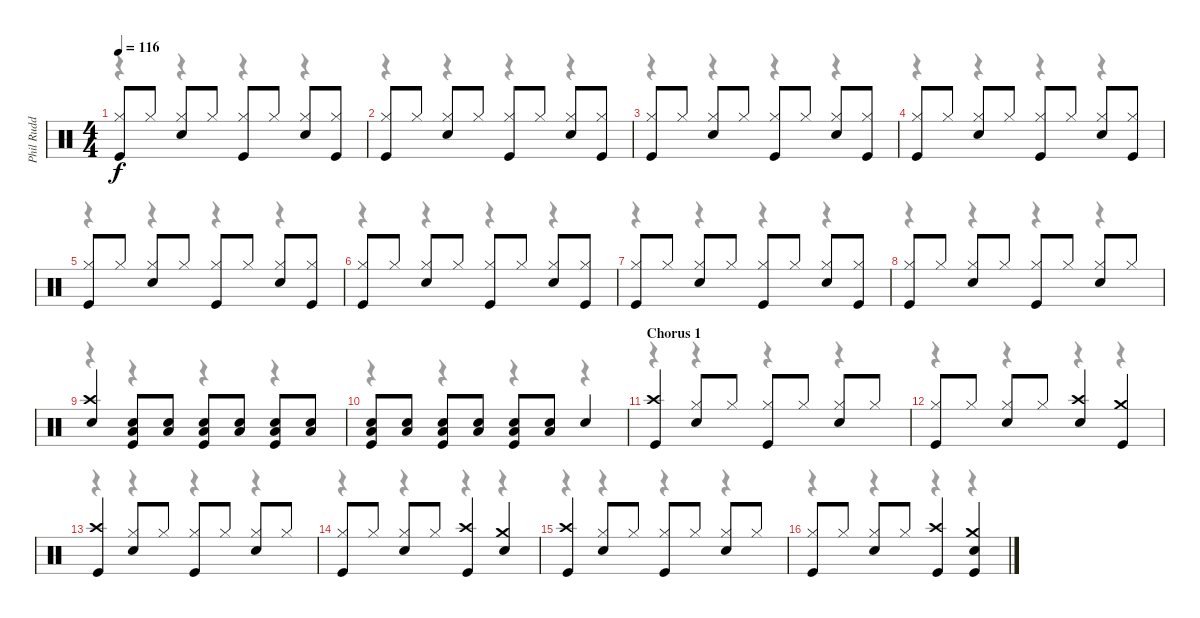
\track ("Phil Rudd" "Phil Rudd") {instrument percussion}
\staff {score}
\articulation defaults
\voice
\ts (4 4)
\tempo 116
\clef neutral
\ks c
("Hi-Hat (closed)" "Kick (hit)").8{dy f} "Hi-Hat (closed)".8 ("Hi-Hat (closed)" "Snare (hit) 2").8 "Hi-Hat (closed)".8 ("Hi-Hat (closed)" "Kick (hit)").8 "Hi-Hat (closed)".8 ("Hi-Hat (closed)" "Snare (hit) 2").8 ("Hi-Hat (closed)" "Kick (hit)").8 |
("Hi-Hat (closed)" "Kick (hit)").8 "Hi-Hat (closed)".8 ("Hi-Hat (closed)" "Snare (hit) 2").8 "Hi-Hat (closed)".8 ("Hi-Hat (closed)" "Kick (hit)").8 "Hi-Hat (closed)".8 ("Hi-Hat (closed)" "Snare (hit) 2").8 ("Hi-Hat (closed)" "Kick (hit)").8 |
("Hi-Hat (closed)" "Kick (hit)").8 "Hi-Hat (closed)".8 ("Hi-Hat (closed)" "Snare (hit) 2").8 "Hi-Hat (closed)".8 ("Hi-Hat (closed)" "Kick (hit)").8 "Hi-Hat (closed)".8 ("Hi-Hat (closed)" "Snare (hit) 2").8 ("Hi-Hat (closed)" "Kick (hit)").8 |
("Hi-Hat (closed)" "Kick (hit)").8 "Hi-Hat (closed)".8 ("Hi-Hat (closed)" "Snare (hit) 2").8 "Hi-Hat (closed)".8 ("Hi-Hat (closed)" "Kick (hit)").8 "Hi-Hat (closed)".8 ("Hi-Hat (closed)" "Snare (hit) 2").8 ("Hi-Hat (closed)" "Kick (hit)").8 |
("Hi-Hat (closed)" "Kick (hit)").8 "Hi-Hat (closed)".8 ("Hi-Hat (closed)" "Snare (hit) 2").8 "Hi-Hat (closed)".8 ("Hi-Hat (closed)" "Kick (hit)").8 "Hi-Hat (closed)".8 ("Hi-Hat (closed)" "Snare (hit) 2").8 ("Hi-Hat (closed)" "Kick (hit)").8 |
("Hi-Hat (closed)" "Kick (hit)").8 "Hi-Hat (closed)".8 ("Hi-Hat (closed)" "Snare (hit) 2").8 "Hi-Hat (closed)".8 ("Hi-Hat (closed)" "Kick (hit)").8 "Hi-Hat (closed)".8 ("Hi-Hat (closed)" "Snare (hit) 2").8 ("Hi-Hat (closed)" "Kick (hit)").8 |
("Hi-Hat (closed)" "Kick (hit)").8 "Hi-Hat (closed)".8 ("Hi-Hat (closed)" "Snare (hit) 2").8 "Hi-Hat (closed)".8 ("Hi-Hat (closed)" "Kick (hit)").8 "Hi-Hat (closed)".8 ("Hi-Hat (closed)" "Snare (hit) 2").8 ("Hi-Hat (closed)" "Kick (hit)").8 |
("Hi-Hat (closed)" "Kick (hit)").8 "Hi-Hat (closed)".8 ("Hi-Hat (closed)" "Snare (hit) 2").8 "Hi-Hat (closed)".8 ("Hi-Hat (closed)" "Kick (hit)").8 "Hi-Hat (closed)".8 ("Hi-Hat (closed)" "Snare (hit) 2").8 "Hi-Hat (closed)".8 |
("Crash high (hit)" "Snare (hit) 2").4 ("Low Floor Tom (hit)" "Snare (hit) 2" "Kick (hit)").8 ("Low Floor Tom (hit)" "Snare (hit) 2").8 ("Low Floor Tom (hit)" "Snare (hit) 2" "Kick (hit)").8 ("Low Floor Tom (hit)" "Snare (hit) 2").8 ("Low Floor Tom (hit)" "Snare (hit) 2" "Kick (hit)").8 ("Low Floor Tom (hit)" "Snare (hit) 2").8 |
("Low Floor Tom (hit)" "Snare (hit) 2" "Kick (hit)").8 ("Low Floor Tom (hit)" "Snare (hit) 2").8 ("Low Floor Tom (hit)" "Snare (hit) 2" "Kick (hit)").8 ("Low Floor Tom (hit)" "Snare (hit) 2").8 ("Low Floor Tom (hit)" "Snare (hit) 2" "Kick (hit)").8 ("Low Floor Tom (hit)" "Snare (hit) 2").8 "Snare (hit) 2".4 |
\section ("" "Chorus 1")
("Crash high (hit)" "Kick (hit)").4 ("Hi-Hat (closed)" "Snare (hit) 2").8 "Hi-Hat (closed)".8 ("Hi-Hat (closed)" "Kick (hit)").8 "Hi-Hat (closed)".8 ("Hi-Hat (closed)" "Snare (hit) 2").8 "Hi-Hat (closed)".8 |
("Hi-Hat (closed)" "Kick (hit)").8 "Hi-Hat (closed)".8 ("Hi-Hat (closed)" "Snare (hit) 2").8 "Hi-Hat (closed)".8 ("Crash high (hit)" "Snare (hit) 2").4 ("Crash medium (hit)" "Kick (hit)").4 |
("Crash high (hit)" "Kick (hit)").4 ("Hi-Hat (closed)" "Snare (hit) 2").8 "Hi-Hat (closed)".8 ("Hi-Hat (closed)" "Kick (hit)").8 "Hi-Hat (closed)".8 ("Hi-Hat (closed)" "Snare (hit) 2").8 "Hi-Hat (closed)".8 |
("Hi-Hat (closed)" "Kick (hit)").8 "Hi-Hat (closed)".8 ("Hi-Hat (closed)" "Snare (hit) 2").8 "Hi-Hat (closed)".8 ("Crash high (hit)" "Kick (hit)").4 ("Crash medium (hit)" "Snare (hit) 2").4 |
("Crash high (hit)" "Kick (hit)").4 ("Hi-Hat (closed)" "Snare (hit) 2").8 "Hi-Hat (closed)".8 ("Hi-Hat (closed)" "Kick (hit)").8 "Hi-Hat (closed)".8 ("Hi-Hat (closed)" "Snare (hit) 2").8 "Hi-Hat (closed)".8 |
("Hi-Hat (closed)" "Kick (hit)").8 "Hi-Hat (closed)".8 ("Hi-Hat (closed)" "Snare (hit) 2").8 "Hi-Hat (closed)".8 ("Crash high (hit)" "Kick (hit)").4 ("Crash medium (hit)" "Snare (hit) 2" "Kick (hit)").4
\voice
\clef neutral
\ottava regular
\simile none
\ks c
r.4{dy f} r.4 r.4 r.4 |
r.4 r.4 r.4 r.4 |
r.4 r.4 r.4 r.4 |
r.4 r.4 r.4 r.4 |
r.4 r.4 r.4 r.4 |
r.4 r.4 r.4 r.4 |
r.4 r.4 r.4 r.4 |
r.4 r.4 r.4 r.4 |
r.4 r.4 r.4 r.4 |
r.4 r.4 r.4 r.4 |
r.4 r.4 r.4 r.4 |
r.4 r.4 r.4 r.4 |
r.4 r.4 r.4 r.4 |
r.4 r.4 r.4 r.4 |
r.4 r.4 r.4 r.4 |
r.4 r.4 r.4 r.4
